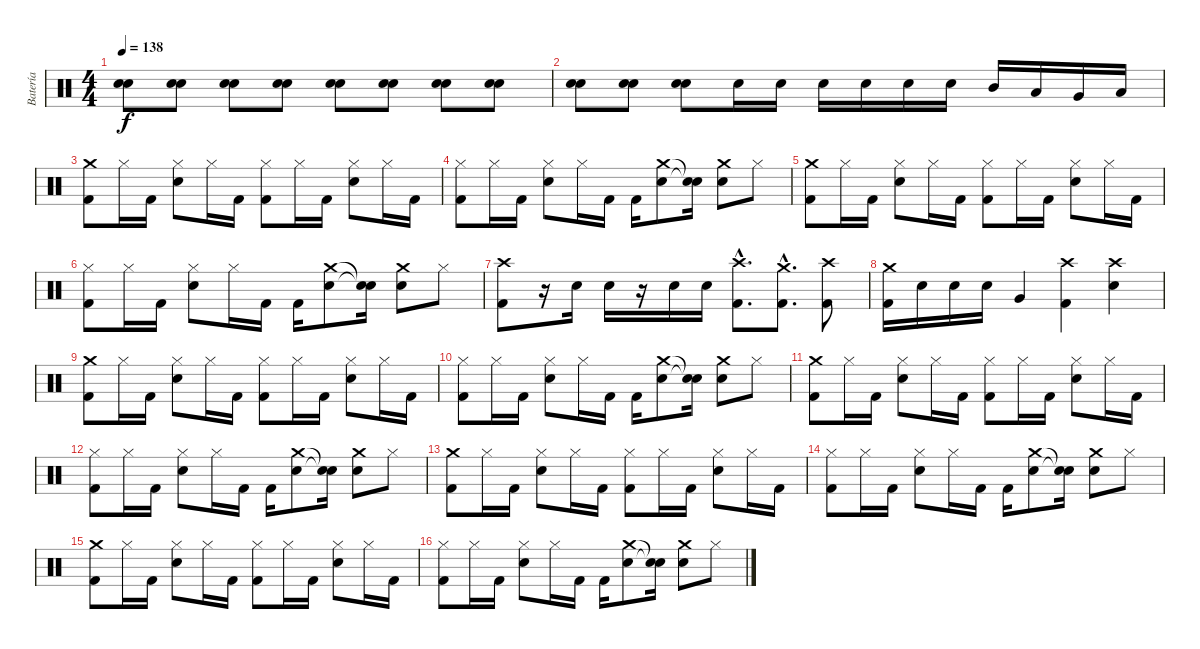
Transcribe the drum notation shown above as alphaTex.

\track ("Batería" "Batería") {instrument percussion}
\staff {score}
\articulation defaults
\ts (4 4)
\tempo 138
\clef neutral
\ks c
("Snare (hit) 2" "Snare (hit) 2").8{dy f} ("Snare (hit) 2" "Snare (hit) 2").8 ("Snare (hit) 2" "Snare (hit) 2").8 ("Snare (hit) 2" "Snare (hit) 2").8 ("Snare (hit) 2" "Snare (hit) 2").8 ("Snare (hit) 2" "Snare (hit) 2").8 ("Snare (hit) 2" "Snare (hit) 2").8 ("Snare (hit) 2" "Snare (hit) 2").8 |
("Snare (hit) 2" "Snare (hit) 2").8 ("Snare (hit) 2" "Snare (hit) 2").8 ("Snare (hit) 2" "Snare (hit) 2").8 "Snare (hit) 2".16 "Snare (hit) 2".16 "Snare (hit) 2".16 "Snare (hit) 2".16 "Snare (hit) 2".16 "Snare (hit) 2".16 "Mid Tom (hit)".16 "Low Tom (hit)".16 "Very Low Tom (hit)".16 "Low Floor Tom (hit)".16 |
("Crash medium (hit)" "Kick (hit) 2").8 "Hi-Hat (closed)".16 "Kick (hit) 2".16 ("Hi-Hat (closed)" "Snare (hit) 2").8 "Hi-Hat (closed)".16 "Kick (hit) 2".16 ("Hi-Hat (closed)" "Kick (hit) 2").8 "Hi-Hat (closed)".16 "Kick (hit) 2".16 ("Hi-Hat (closed)" "Snare (hit) 2").8 "Hi-Hat (closed)".16 "Kick (hit) 2".16 |
("Hi-Hat (closed)" "Kick (hit) 2").8 "Hi-Hat (closed)".16 "Kick (hit) 2".16 ("Hi-Hat (closed)" "Snare (hit) 2").8 "Hi-Hat (closed)".16 "Kick (hit) 2".16 "Kick (hit) 2".16 ("Crash medium (hit)" "Snare (hit) 2").8 ("Snare (hit)"{t} "Snare (hit)"{t}).16 ("Crash medium (hit)" "Snare (hit) 2").8 "Hi-Hat (closed)".8 |
("Crash medium (hit)" "Kick (hit) 2").8 "Hi-Hat (closed)".16 "Kick (hit) 2".16 ("Hi-Hat (closed)" "Snare (hit) 2").8 "Hi-Hat (closed)".16 "Kick (hit) 2".16 ("Hi-Hat (closed)" "Kick (hit) 2").8 "Hi-Hat (closed)".16 "Kick (hit) 2".16 ("Hi-Hat (closed)" "Snare (hit) 2").8 "Hi-Hat (closed)".16 "Kick (hit) 2".16 |
("Hi-Hat (closed)" "Kick (hit) 2").8 "Hi-Hat (closed)".16 "Kick (hit) 2".16 ("Hi-Hat (closed)" "Snare (hit) 2").8 "Hi-Hat (closed)".16 "Kick (hit) 2".16 "Kick (hit) 2".16 ("Crash medium (hit)" "Snare (hit) 2").8 ("Snare (hit)"{t} "Snare (hit)"{t}).16 ("Crash medium (hit)" "Snare (hit) 2").8 "Hi-Hat (closed)".8 |
("Crash high (hit)" "Kick (hit) 2").8 r.16 "Snare (hit) 2".16 "Snare (hit) 2".16 r.16 "Snare (hit) 2".16 "Snare (hit) 2".16 ("Crash high (hit)"{hac} "Kick (hit) 2"{hac}).8{d} ("Crash medium (hit)"{hac} "Kick (hit) 2"{hac}).8{d} ("Crash high (hit)" "Kick (hit) 2").8 |
("Crash medium (hit)" "Kick (hit) 2").16 "Snare (hit) 2".16 "Snare (hit) 2".16 "Snare (hit) 2".16 "Very Low Tom (hit)".4 ("Crash high (hit)" "Kick (hit) 2").4 ("Crash high (hit)" "Snare (hit) 2").4 |
("Crash medium (hit)" "Kick (hit) 2").8 "Hi-Hat (closed)".16 "Kick (hit) 2".16 ("Hi-Hat (closed)" "Snare (hit) 2").8 "Hi-Hat (closed)".16 "Kick (hit) 2".16 ("Hi-Hat (closed)" "Kick (hit) 2").8 "Hi-Hat (closed)".16 "Kick (hit) 2".16 ("Hi-Hat (closed)" "Snare (hit) 2").8 "Hi-Hat (closed)".16 "Kick (hit) 2".16 |
("Hi-Hat (closed)" "Kick (hit) 2").8 "Hi-Hat (closed)".16 "Kick (hit) 2".16 ("Hi-Hat (closed)" "Snare (hit) 2").8 "Hi-Hat (closed)".16 "Kick (hit) 2".16 "Kick (hit) 2".16 ("Crash medium (hit)" "Snare (hit) 2").8 ("Snare (hit)"{t} "Snare (hit)"{t}).16 ("Crash medium (hit)" "Snare (hit) 2").8 "Hi-Hat (closed)".8 |
("Crash medium (hit)" "Kick (hit) 2").8 "Hi-Hat (closed)".16 "Kick (hit) 2".16 ("Hi-Hat (closed)" "Snare (hit) 2").8 "Hi-Hat (closed)".16 "Kick (hit) 2".16 ("Hi-Hat (closed)" "Kick (hit) 2").8 "Hi-Hat (closed)".16 "Kick (hit) 2".16 ("Hi-Hat (closed)" "Snare (hit) 2").8 "Hi-Hat (closed)".16 "Kick (hit) 2".16 |
("Hi-Hat (closed)" "Kick (hit) 2").8 "Hi-Hat (closed)".16 "Kick (hit) 2".16 ("Hi-Hat (closed)" "Snare (hit) 2").8 "Hi-Hat (closed)".16 "Kick (hit) 2".16 "Kick (hit) 2".16 ("Crash medium (hit)" "Snare (hit) 2").8 ("Snare (hit)"{t} "Snare (hit)"{t}).16 ("Crash medium (hit)" "Snare (hit) 2").8 "Hi-Hat (closed)".8 |
("Crash medium (hit)" "Kick (hit) 2").8 "Hi-Hat (closed)".16 "Kick (hit) 2".16 ("Hi-Hat (closed)" "Snare (hit) 2").8 "Hi-Hat (closed)".16 "Kick (hit) 2".16 ("Hi-Hat (closed)" "Kick (hit) 2").8 "Hi-Hat (closed)".16 "Kick (hit) 2".16 ("Hi-Hat (closed)" "Snare (hit) 2").8 "Hi-Hat (closed)".16 "Kick (hit) 2".16 |
("Hi-Hat (closed)" "Kick (hit) 2").8 "Hi-Hat (closed)".16 "Kick (hit) 2".16 ("Hi-Hat (closed)" "Snare (hit) 2").8 "Hi-Hat (closed)".16 "Kick (hit) 2".16 "Kick (hit) 2".16 ("Crash medium (hit)" "Snare (hit) 2").8 ("Snare (hit)"{t} "Snare (hit)"{t}).16 ("Crash medium (hit)" "Snare (hit) 2").8 "Hi-Hat (closed)".8 |
("Crash medium (hit)" "Kick (hit) 2").8 "Hi-Hat (closed)".16 "Kick (hit) 2".16 ("Hi-Hat (closed)" "Snare (hit) 2").8 "Hi-Hat (closed)".16 "Kick (hit) 2".16 ("Hi-Hat (closed)" "Kick (hit) 2").8 "Hi-Hat (closed)".16 "Kick (hit) 2".16 ("Hi-Hat (closed)" "Snare (hit) 2").8 "Hi-Hat (closed)".16 "Kick (hit) 2".16 |
("Hi-Hat (closed)" "Kick (hit) 2").8 "Hi-Hat (closed)".16 "Kick (hit) 2".16 ("Hi-Hat (closed)" "Snare (hit) 2").8 "Hi-Hat (closed)".16 "Kick (hit) 2".16 "Kick (hit) 2".16 ("Crash medium (hit)" "Snare (hit) 2").8 ("Snare (hit)"{t} "Snare (hit)"{t}).16 ("Crash medium (hit)" "Snare (hit) 2").8 "Hi-Hat (closed)".8
